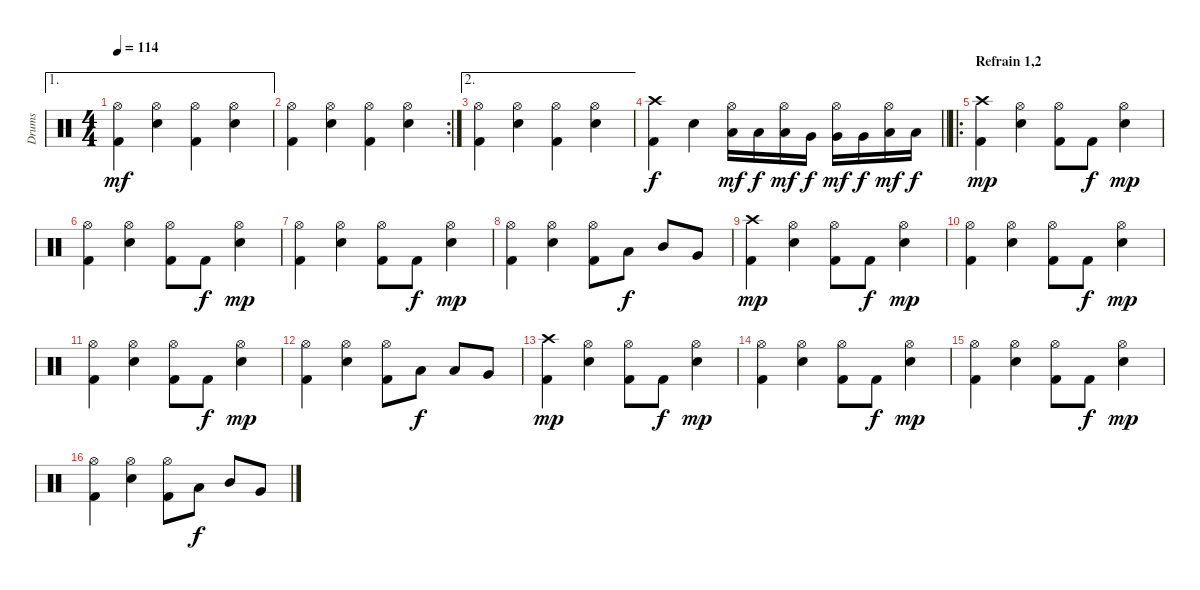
\track ("Drums" "Drums") {instrument percussion}
\staff {score}
\articulation defaults
\ae 1
\ts (4 4)
\tempo 114
\clef neutral
\ks c
("Hi-Hat (open)" "Kick (hit) 2").4{dy mf} ("Hi-Hat (open)" "Snare (hit) 2").4 ("Hi-Hat (open)" "Kick (hit) 2").4 ("Hi-Hat (open)" "Snare (hit) 2").4 |
\rc 2
("Hi-Hat (open)" "Kick (hit) 2").4 ("Hi-Hat (open)" "Snare (hit) 2").4 ("Hi-Hat (open)" "Kick (hit) 2").4 ("Hi-Hat (open)" "Snare (hit) 2").4 |
\ae 2
("Hi-Hat (open)" "Kick (hit) 2").4 ("Hi-Hat (open)" "Snare (hit) 2").4 ("Hi-Hat (open)" "Kick (hit) 2").4 ("Hi-Hat (open)" "Snare (hit) 2").4 |
\barLineRight lightlight
("Crash high (hit)" "Kick (hit) 2").4{dy f} "Snare (hit) 2".4 ("Hi-Hat (open)" "Low Tom (hit)").16{dy mf} "Low Tom (hit)".16{dy f} ("Hi-Hat (open)" "Low Tom (hit)").16{dy mf} "Very Low Tom (hit)".16{dy f} ("Hi-Hat (open)" "Very Low Tom (hit)").16{dy mf} "Very Low Tom (hit)".16{dy f} ("Hi-Hat (open)" "Low Floor Tom (hit)").16{dy mf} "Low Floor Tom (hit)".16{dy f} |
\ro
\section ("" "Refrain 1,2")
("Crash high (hit)" "Kick (hit) 2").4{dy mp} ("Hi-Hat (open)" "Snare (hit) 2").4 ("Hi-Hat (open)" "Kick (hit) 2").8 "Kick (hit) 2".8{dy f} ("Hi-Hat (open)" "Snare (hit) 2").4{dy mp} |
("Hi-Hat (open)" "Kick (hit) 2").4 ("Hi-Hat (open)" "Snare (hit) 2").4 ("Hi-Hat (open)" "Kick (hit) 2").8 "Kick (hit) 2".8{dy f} ("Hi-Hat (open)" "Snare (hit) 2").4{dy mp} |
("Hi-Hat (open)" "Kick (hit) 2").4 ("Hi-Hat (open)" "Snare (hit) 2").4 ("Hi-Hat (open)" "Kick (hit) 2").8 "Kick (hit) 2".8{dy f} ("Hi-Hat (open)" "Snare (hit) 2").4{dy mp} |
("Hi-Hat (open)" "Kick (hit) 2").4 ("Hi-Hat (open)" "Snare (hit) 2").4 ("Hi-Hat (open)" "Kick (hit) 2").8 "Low Floor Tom (hit)".8{dy f} "Mid Tom (hit)".8 "Very Low Tom (hit)".8 |
("Crash high (hit)" "Kick (hit) 2").4{dy mp} ("Hi-Hat (open)" "Snare (hit) 2").4 ("Hi-Hat (open)" "Kick (hit) 2").8 "Kick (hit) 2".8{dy f} ("Hi-Hat (open)" "Snare (hit) 2").4{dy mp} |
("Hi-Hat (open)" "Kick (hit) 2").4 ("Hi-Hat (open)" "Snare (hit) 2").4 ("Hi-Hat (open)" "Kick (hit) 2").8 "Kick (hit) 2".8{dy f} ("Hi-Hat (open)" "Snare (hit) 2").4{dy mp} |
("Hi-Hat (open)" "Kick (hit) 2").4 ("Hi-Hat (open)" "Snare (hit) 2").4 ("Hi-Hat (open)" "Kick (hit) 2").8 "Kick (hit) 2".8{dy f} ("Hi-Hat (open)" "Snare (hit) 2").4{dy mp} |
("Hi-Hat (open)" "Kick (hit) 2").4 ("Hi-Hat (open)" "Snare (hit) 2").4 ("Hi-Hat (open)" "Kick (hit) 2").8 "Low Floor Tom (hit)".8{dy f} "Low Tom (hit)".8 "Very Low Tom (hit)".8 |
("Crash high (hit)" "Kick (hit) 2").4{dy mp} ("Hi-Hat (open)" "Snare (hit) 2").4 ("Hi-Hat (open)" "Kick (hit) 2").8 "Kick (hit) 2".8{dy f} ("Hi-Hat (open)" "Snare (hit) 2").4{dy mp} |
("Hi-Hat (open)" "Kick (hit) 2").4 ("Hi-Hat (open)" "Snare (hit) 2").4 ("Hi-Hat (open)" "Kick (hit) 2").8 "Kick (hit) 2".8{dy f} ("Hi-Hat (open)" "Snare (hit) 2").4{dy mp} |
("Hi-Hat (open)" "Kick (hit) 2").4 ("Hi-Hat (open)" "Snare (hit) 2").4 ("Hi-Hat (open)" "Kick (hit) 2").8 "Kick (hit) 2".8{dy f} ("Hi-Hat (open)" "Snare (hit) 2").4{dy mp} |
("Hi-Hat (open)" "Kick (hit) 2").4 ("Hi-Hat (open)" "Snare (hit) 2").4 ("Hi-Hat (open)" "Kick (hit) 2").8 "Low Floor Tom (hit)".8{dy f} "Mid Tom (hit)".8 "Very Low Tom (hit)".8
